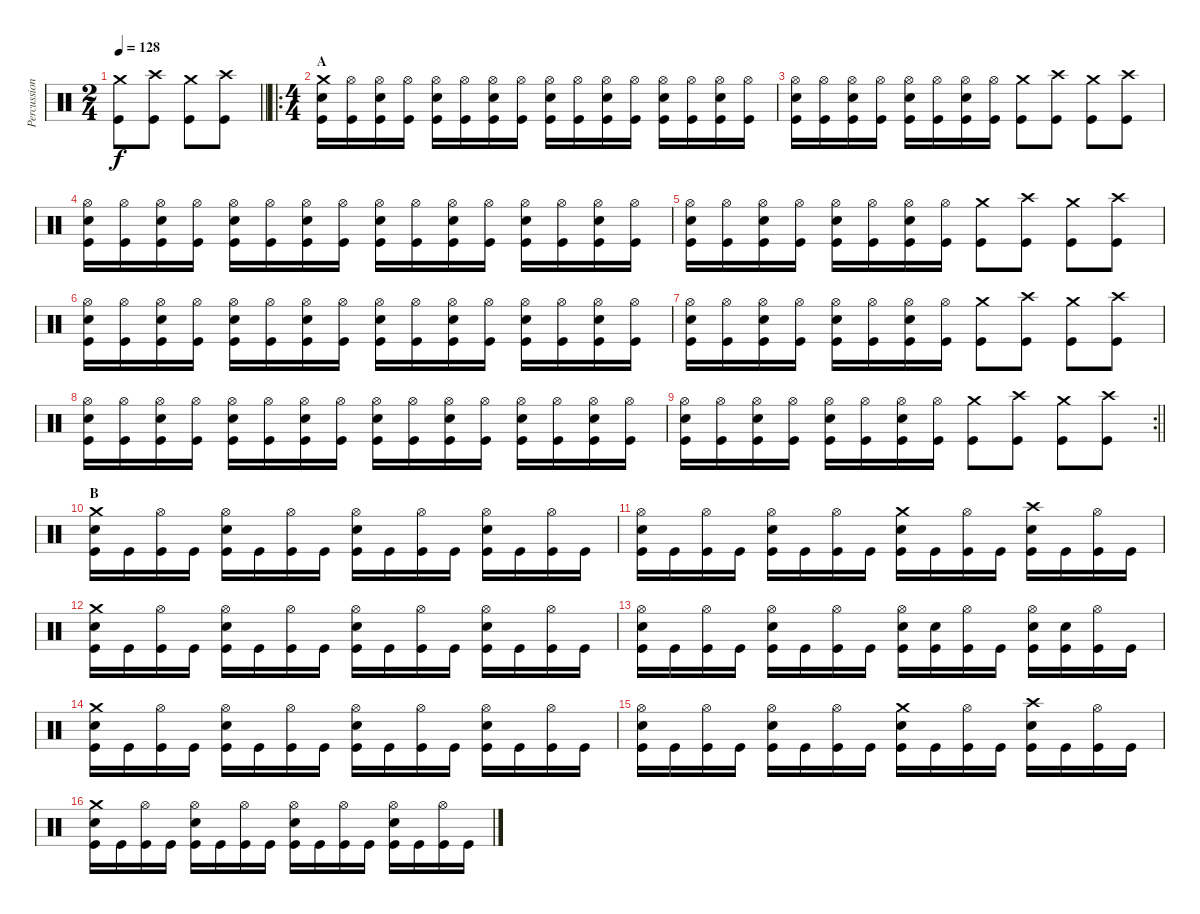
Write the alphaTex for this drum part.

\track ("Percussion" "Percussion") {instrument percussion}
\staff {score}
\articulation defaults
\ts (2 4)
\tempo 128
\clef neutral
\barLineRight lightlight
\ks c
("Kick (hit)" "Crash medium (hit)").8{dy f} ("Kick (hit)" "Crash high (hit)").8 ("Kick (hit)" "Crash medium (hit)").8 ("Kick (hit)" "Crash high (hit)").8 |
\ro
\ts (4 4)
\section ("" "A")
("Kick (hit)" "Snare (hit) 2" "Crash medium (hit)").16 ("Kick (hit)" "Hi-Hat (open)").16 ("Kick (hit)" "Snare (hit) 2" "Hi-Hat (open)").16 ("Kick (hit)" "Hi-Hat (open)").16 ("Kick (hit)" "Snare (hit) 2" "Hi-Hat (open)").16 ("Kick (hit)" "Hi-Hat (open)").16 ("Kick (hit)" "Snare (hit) 2" "Hi-Hat (open)").16 ("Kick (hit)" "Hi-Hat (open)").16 ("Kick (hit)" "Snare (hit) 2" "Hi-Hat (open)").16 ("Kick (hit)" "Hi-Hat (open)").16 ("Kick (hit)" "Snare (hit) 2" "Hi-Hat (open)").16 ("Kick (hit)" "Hi-Hat (open)").16 ("Kick (hit)" "Snare (hit) 2" "Hi-Hat (open)").16 ("Kick (hit)" "Hi-Hat (open)").16 ("Kick (hit)" "Snare (hit) 2" "Hi-Hat (open)").16 ("Kick (hit)" "Hi-Hat (open)").16 |
("Kick (hit)" "Snare (hit) 2" "Hi-Hat (open)").16 ("Kick (hit)" "Hi-Hat (open)").16 ("Kick (hit)" "Snare (hit) 2" "Hi-Hat (open)").16 ("Kick (hit)" "Hi-Hat (open)").16 ("Kick (hit)" "Snare (hit) 2" "Hi-Hat (open)").16 ("Kick (hit)" "Hi-Hat (open)").16 ("Kick (hit)" "Snare (hit) 2" "Hi-Hat (open)").16 ("Kick (hit)" "Hi-Hat (open)").16 ("Kick (hit)" "Crash medium (hit)").8 ("Kick (hit)" "Crash high (hit)").8 ("Kick (hit)" "Crash medium (hit)").8 ("Kick (hit)" "Crash high (hit)").8 |
("Kick (hit)" "Snare (hit) 2" "Hi-Hat (open)").16 ("Kick (hit)" "Hi-Hat (open)").16 ("Kick (hit)" "Snare (hit) 2" "Hi-Hat (open)").16 ("Kick (hit)" "Hi-Hat (open)").16 ("Kick (hit)" "Snare (hit) 2" "Hi-Hat (open)").16 ("Kick (hit)" "Hi-Hat (open)").16 ("Kick (hit)" "Snare (hit) 2" "Hi-Hat (open)").16 ("Kick (hit)" "Hi-Hat (open)").16 ("Kick (hit)" "Snare (hit) 2" "Hi-Hat (open)").16 ("Kick (hit)" "Hi-Hat (open)").16 ("Kick (hit)" "Snare (hit) 2" "Hi-Hat (open)").16 ("Kick (hit)" "Hi-Hat (open)").16 ("Kick (hit)" "Snare (hit) 2" "Hi-Hat (open)").16 ("Kick (hit)" "Hi-Hat (open)").16 ("Kick (hit)" "Snare (hit) 2" "Hi-Hat (open)").16 ("Kick (hit)" "Hi-Hat (open)").16 |
("Kick (hit)" "Snare (hit) 2" "Hi-Hat (open)").16 ("Kick (hit)" "Hi-Hat (open)").16 ("Kick (hit)" "Snare (hit) 2" "Hi-Hat (open)").16 ("Kick (hit)" "Hi-Hat (open)").16 ("Kick (hit)" "Snare (hit) 2" "Hi-Hat (open)").16 ("Kick (hit)" "Hi-Hat (open)").16 ("Kick (hit)" "Snare (hit) 2" "Hi-Hat (open)").16 ("Kick (hit)" "Hi-Hat (open)").16 ("Kick (hit)" "Crash medium (hit)").8 ("Kick (hit)" "Crash high (hit)").8 ("Kick (hit)" "Crash medium (hit)").8 ("Kick (hit)" "Crash high (hit)").8 |
("Kick (hit)" "Snare (hit) 2" "Hi-Hat (open)").16 ("Kick (hit)" "Hi-Hat (open)").16 ("Kick (hit)" "Snare (hit) 2" "Hi-Hat (open)").16 ("Kick (hit)" "Hi-Hat (open)").16 ("Kick (hit)" "Snare (hit) 2" "Hi-Hat (open)").16 ("Kick (hit)" "Hi-Hat (open)").16 ("Kick (hit)" "Snare (hit) 2" "Hi-Hat (open)").16 ("Kick (hit)" "Hi-Hat (open)").16 ("Kick (hit)" "Snare (hit) 2" "Hi-Hat (open)").16 ("Kick (hit)" "Hi-Hat (open)").16 ("Kick (hit)" "Snare (hit) 2" "Hi-Hat (open)").16 ("Kick (hit)" "Hi-Hat (open)").16 ("Kick (hit)" "Snare (hit) 2" "Hi-Hat (open)").16 ("Kick (hit)" "Hi-Hat (open)").16 ("Kick (hit)" "Snare (hit) 2" "Hi-Hat (open)").16 ("Kick (hit)" "Hi-Hat (open)").16 |
("Kick (hit)" "Snare (hit) 2" "Hi-Hat (open)").16 ("Kick (hit)" "Hi-Hat (open)").16 ("Kick (hit)" "Snare (hit) 2" "Hi-Hat (open)").16 ("Kick (hit)" "Hi-Hat (open)").16 ("Kick (hit)" "Snare (hit) 2" "Hi-Hat (open)").16 ("Kick (hit)" "Hi-Hat (open)").16 ("Kick (hit)" "Snare (hit) 2" "Hi-Hat (open)").16 ("Kick (hit)" "Hi-Hat (open)").16 ("Kick (hit)" "Crash medium (hit)").8 ("Kick (hit)" "Crash high (hit)").8 ("Kick (hit)" "Crash medium (hit)").8 ("Kick (hit)" "Crash high (hit)").8 |
("Kick (hit)" "Snare (hit) 2" "Hi-Hat (open)").16 ("Kick (hit)" "Hi-Hat (open)").16 ("Kick (hit)" "Snare (hit) 2" "Hi-Hat (open)").16 ("Kick (hit)" "Hi-Hat (open)").16 ("Kick (hit)" "Snare (hit) 2" "Hi-Hat (open)").16 ("Kick (hit)" "Hi-Hat (open)").16 ("Kick (hit)" "Snare (hit) 2" "Hi-Hat (open)").16 ("Kick (hit)" "Hi-Hat (open)").16 ("Kick (hit)" "Snare (hit) 2" "Hi-Hat (open)").16 ("Kick (hit)" "Hi-Hat (open)").16 ("Kick (hit)" "Snare (hit) 2" "Hi-Hat (open)").16 ("Kick (hit)" "Hi-Hat (open)").16 ("Kick (hit)" "Snare (hit) 2" "Hi-Hat (open)").16 ("Kick (hit)" "Hi-Hat (open)").16 ("Kick (hit)" "Snare (hit) 2" "Hi-Hat (open)").16 ("Kick (hit)" "Hi-Hat (open)").16 |
\rc 2
\barLineRight lightlight
("Kick (hit)" "Snare (hit) 2" "Hi-Hat (open)").16 ("Kick (hit)" "Hi-Hat (open)").16 ("Kick (hit)" "Snare (hit) 2" "Hi-Hat (open)").16 ("Kick (hit)" "Hi-Hat (open)").16 ("Kick (hit)" "Snare (hit) 2" "Hi-Hat (open)").16 ("Kick (hit)" "Hi-Hat (open)").16 ("Kick (hit)" "Snare (hit) 2" "Hi-Hat (open)").16 ("Kick (hit)" "Hi-Hat (open)").16 ("Kick (hit)" "Crash medium (hit)").8 ("Kick (hit)" "Crash high (hit)").8 ("Kick (hit)" "Crash medium (hit)").8 ("Kick (hit)" "Crash high (hit)").8 |
\section ("" "B")
("Kick (hit)" "Snare (hit) 2" "Crash medium (hit)").16 "Kick (hit)".16 ("Kick (hit)" "Hi-Hat (open)").16 "Kick (hit)".16 ("Kick (hit)" "Snare (hit) 2" "Hi-Hat (open)").16 "Kick (hit)".16 ("Kick (hit)" "Hi-Hat (open)").16 "Kick (hit)".16 ("Kick (hit)" "Snare (hit) 2" "Hi-Hat (open)").16 "Kick (hit)".16 ("Kick (hit)" "Hi-Hat (open)").16 "Kick (hit)".16 ("Kick (hit)" "Snare (hit) 2" "Hi-Hat (open)").16 "Kick (hit)".16 ("Kick (hit)" "Hi-Hat (open)").16 "Kick (hit)".16 |
("Kick (hit)" "Snare (hit) 2" "Hi-Hat (open)").16 "Kick (hit)".16 ("Kick (hit)" "Hi-Hat (open)").16 "Kick (hit)".16 ("Kick (hit)" "Snare (hit) 2" "Hi-Hat (open)").16 "Kick (hit)".16 ("Kick (hit)" "Hi-Hat (open)").16 "Kick (hit)".16 ("Kick (hit)" "Snare (hit) 2" "Crash medium (hit)").16 "Kick (hit)".16 ("Kick (hit)" "Hi-Hat (open)").16 "Kick (hit)".16 ("Kick (hit)" "Snare (hit) 2" "Crash high (hit)").16 "Kick (hit)".16 ("Kick (hit)" "Hi-Hat (open)").16 "Kick (hit)".16 |
("Kick (hit)" "Snare (hit) 2" "Crash medium (hit)").16 "Kick (hit)".16 ("Kick (hit)" "Hi-Hat (open)").16 "Kick (hit)".16 ("Kick (hit)" "Snare (hit) 2" "Hi-Hat (open)").16 "Kick (hit)".16 ("Kick (hit)" "Hi-Hat (open)").16 "Kick (hit)".16 ("Kick (hit)" "Snare (hit) 2" "Hi-Hat (open)").16 "Kick (hit)".16 ("Kick (hit)" "Hi-Hat (open)").16 "Kick (hit)".16 ("Kick (hit)" "Snare (hit) 2" "Hi-Hat (open)").16 "Kick (hit)".16 ("Kick (hit)" "Hi-Hat (open)").16 "Kick (hit)".16 |
("Kick (hit)" "Snare (hit) 2" "Hi-Hat (open)").16 "Kick (hit)".16 ("Kick (hit)" "Hi-Hat (open)").16 "Kick (hit)".16 ("Kick (hit)" "Snare (hit) 2" "Hi-Hat (open)").16 "Kick (hit)".16 ("Kick (hit)" "Hi-Hat (open)").16 "Kick (hit)".16 ("Kick (hit)" "Snare (hit) 2" "Hi-Hat (open)").16 ("Kick (hit)" "Snare (hit) 2").16 ("Kick (hit)" "Hi-Hat (open)").16 "Kick (hit)".16 ("Kick (hit)" "Snare (hit) 2" "Hi-Hat (open)").16 ("Kick (hit)" "Snare (hit) 2").16 ("Kick (hit)" "Hi-Hat (open)").16 "Kick (hit)".16 |
("Kick (hit)" "Snare (hit) 2" "Crash medium (hit)").16 "Kick (hit)".16 ("Kick (hit)" "Hi-Hat (open)").16 "Kick (hit)".16 ("Kick (hit)" "Snare (hit) 2" "Hi-Hat (open)").16 "Kick (hit)".16 ("Kick (hit)" "Hi-Hat (open)").16 "Kick (hit)".16 ("Kick (hit)" "Snare (hit) 2" "Hi-Hat (open)").16 "Kick (hit)".16 ("Kick (hit)" "Hi-Hat (open)").16 "Kick (hit)".16 ("Kick (hit)" "Snare (hit) 2" "Hi-Hat (open)").16 "Kick (hit)".16 ("Kick (hit)" "Hi-Hat (open)").16 "Kick (hit)".16 |
("Kick (hit)" "Snare (hit) 2" "Hi-Hat (open)").16 "Kick (hit)".16 ("Kick (hit)" "Hi-Hat (open)").16 "Kick (hit)".16 ("Kick (hit)" "Snare (hit) 2" "Hi-Hat (open)").16 "Kick (hit)".16 ("Kick (hit)" "Hi-Hat (open)").16 "Kick (hit)".16 ("Kick (hit)" "Snare (hit) 2" "Crash medium (hit)").16 "Kick (hit)".16 ("Kick (hit)" "Hi-Hat (open)").16 "Kick (hit)".16 ("Kick (hit)" "Snare (hit) 2" "Crash high (hit)").16 "Kick (hit)".16 ("Kick (hit)" "Hi-Hat (open)").16 "Kick (hit)".16 |
("Kick (hit)" "Snare (hit) 2" "Crash medium (hit)").16 "Kick (hit)".16 ("Kick (hit)" "Hi-Hat (open)").16 "Kick (hit)".16 ("Kick (hit)" "Snare (hit) 2" "Hi-Hat (open)").16 "Kick (hit)".16 ("Kick (hit)" "Hi-Hat (open)").16 "Kick (hit)".16 ("Kick (hit)" "Snare (hit) 2" "Hi-Hat (open)").16 "Kick (hit)".16 ("Kick (hit)" "Hi-Hat (open)").16 "Kick (hit)".16 ("Kick (hit)" "Snare (hit) 2" "Hi-Hat (open)").16 "Kick (hit)".16 ("Kick (hit)" "Hi-Hat (open)").16 "Kick (hit)".16
